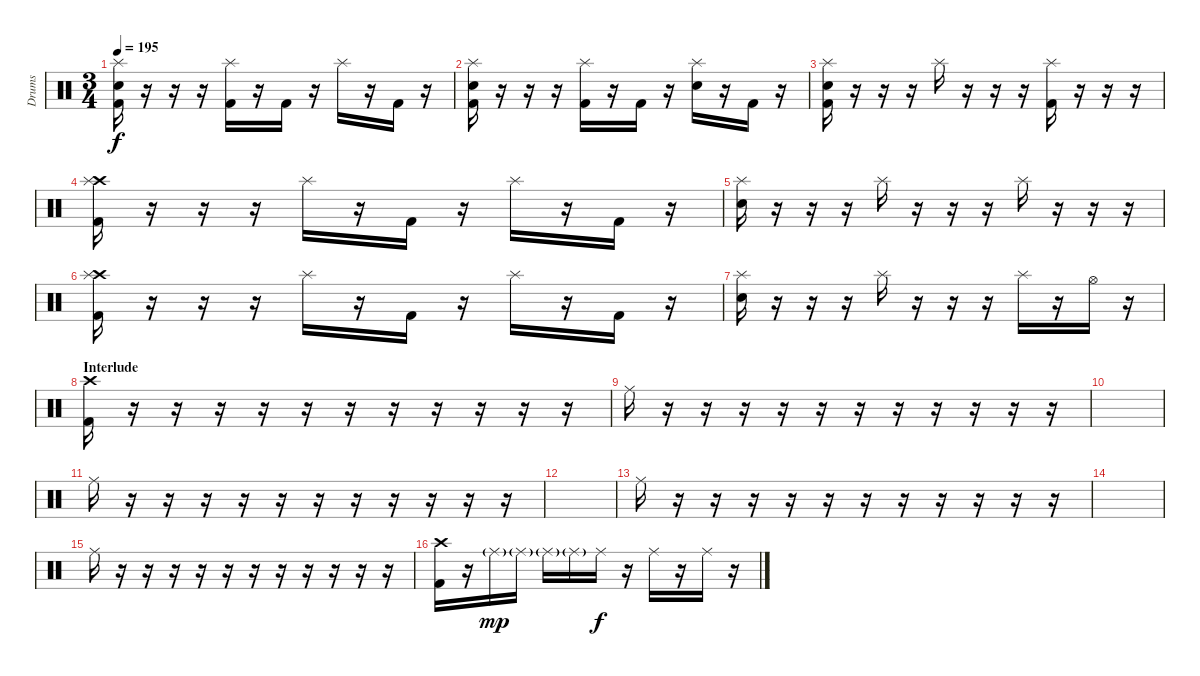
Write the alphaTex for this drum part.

\track ("Drums" "Drums") {instrument percussion}
\staff {score}
\articulation defaults
\ts (3 4)
\tempo 195
\clef neutral
\ks c
("Splash (hit)" "Snare (hit) 2" "Kick (hit) 2").16{dy f} r.16 r.16 r.16 ("Splash (hit)" "Kick (hit) 2").16 r.16 "Kick (hit) 2".16 r.16 "Splash (hit)".16 r.16 "Kick (hit) 2".16 r.16 |
("Splash (hit)" "Snare (hit) 2" "Kick (hit) 2").16 r.16 r.16 r.16 ("Splash (hit)" "Kick (hit) 2").16 r.16 "Kick (hit) 2".16 r.16 ("Splash (hit)" "Snare (hit) 2").16 r.16 "Kick (hit) 2".16 r.16 |
("Splash (hit)" "Snare (hit) 2" "Kick (hit) 2").16 r.16 r.16 r.16 "Splash (hit)".16 r.16 r.16 r.16 ("Splash (hit)" "Kick (hit) 2").16 r.16 r.16 r.16 |
("Crash high (hit)" "Splash (hit)" "Kick (hit) 2").16 r.16 r.16 r.16 "Splash (hit)".16 r.16 "Kick (hit) 2".16 r.16 "Splash (hit)".16 r.16 "Kick (hit) 2".16 r.16 |
("Splash (hit)" "Snare (hit) 2").16 r.16 r.16 r.16 "Splash (hit)".16 r.16 r.16 r.16 "Splash (hit)".16 r.16 r.16 r.16 |
("Crash high (hit)" "Splash (hit)" "Kick (hit) 2").16 r.16 r.16 r.16 "Splash (hit)".16 r.16 "Kick (hit) 2".16 r.16 "Splash (hit)".16 r.16 "Kick (hit) 2".16 r.16 |
("Splash (hit)" "Snare (hit) 2").16 r.16 r.16 r.16 "Splash (hit)".16 r.16 r.16 r.16 "Splash (hit)".16 r.16 "Hi-Hat (open)".16 r.16 |
\section ("" "Interlude")
("Crash high (hit)" "Kick (hit) 2").16 r.16 r.16 r.16 r.16 r.16 r.16 r.16 r.16 r.16 r.16 r.16 |
"Ride (middle)".16 r.16 r.16 r.16 r.16 r.16 r.16 r.16 r.16 r.16 r.16 r.16 |
|
"Ride (middle)".16 r.16 r.16 r.16 r.16 r.16 r.16 r.16 r.16 r.16 r.16 r.16 |
|
"Ride (middle)".16 r.16 r.16 r.16 r.16 r.16 r.16 r.16 r.16 r.16 r.16 r.16 |
|
"Ride (middle)".16 r.16 r.16 r.16 r.16 r.16 r.16 r.16 r.16 r.16 r.16 r.16 |
("Crash high (hit)" "Kick (hit) 2").16 r.16 "Ride (middle)"{g}.16{dy mp} "Ride (middle)"{g}.16 "Ride (middle)"{g}.16 "Ride (middle)"{g}.16 "Ride (middle)".16{dy f} r.16 "Ride (middle)".16 r.16 "Ride (middle)".16 r.16
